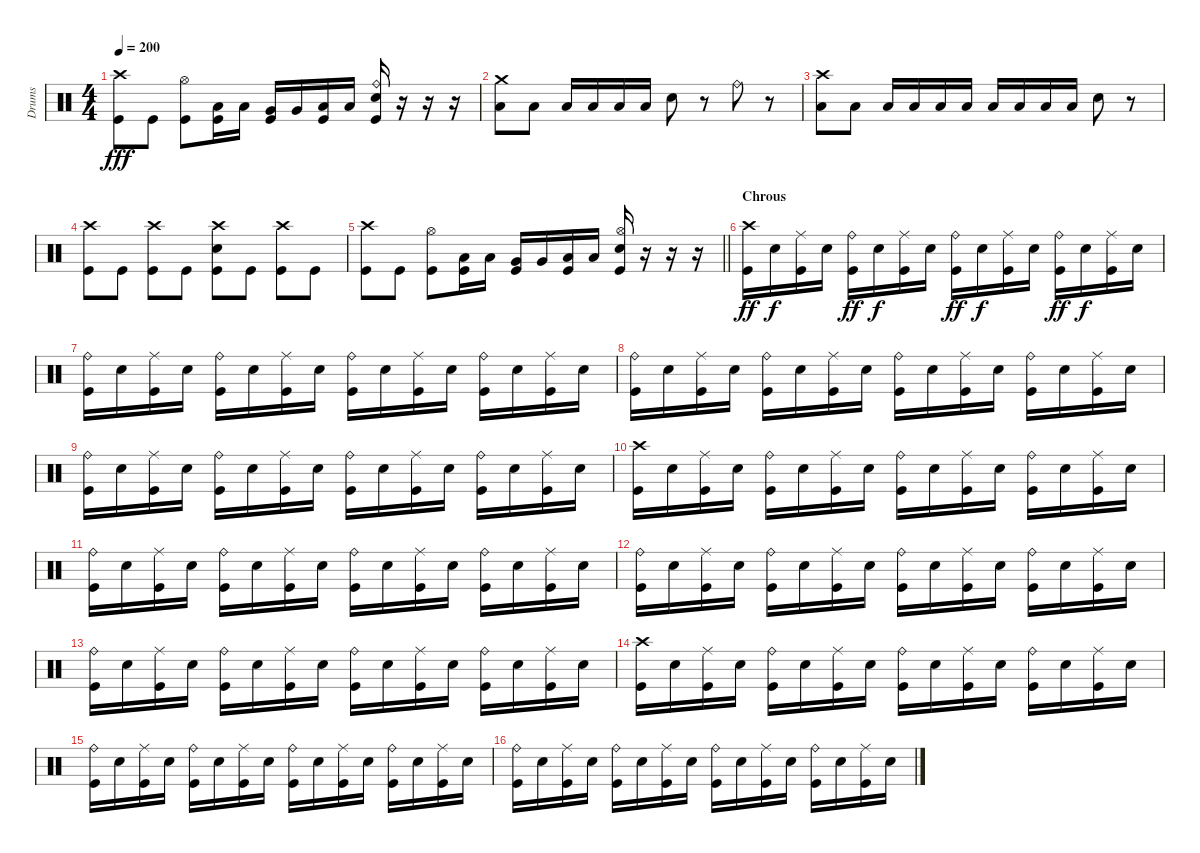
\track ("Drums" "Drums") {instrument percussion}
\staff {score}
\articulation defaults
\ts (4 4)
\tempo 200
\clef neutral
\ks c
("Crash high (hit)" "Kick (hit)").8{dy fff} "Kick (hit)".8 ("Hi-Hat (open)" "Kick (hit)").8 ("Low Tom (hit)" "Kick (hit)").16 "Low Tom (hit)".16 ("Very Low Tom (hit)" "Kick (hit)").16 "Very Low Tom (hit)".16 ("Low Tom (hit)" "Kick (hit)").16 "Low Tom (hit)".16 ("Ride (bell)" "Snare (hit) 2" "Kick (hit)").16 r.16 r.16 r.16 |
("Crash medium (hit)" "Low Floor Tom (hit)").8 "Low Floor Tom (hit)".8 "Low Tom (hit)".16 "Low Tom (hit)".16 "Low Floor Tom (hit)".16 "Low Floor Tom (hit)".16 "Snare (hit) 2".8 r.8 "Ride (bell)".8 r.8 |
("Crash high (hit)" "Low Floor Tom (hit)").8 "Low Floor Tom (hit)".8 "Low Tom (hit)".16 "Low Tom (hit)".16 "Low Floor Tom (hit)".16 "Low Floor Tom (hit)".16 "Low Tom (hit)".16 "Low Tom (hit)".16 "Low Floor Tom (hit)".16 "Low Floor Tom (hit)".16 "Snare (hit) 2".8 r.8 |
("Crash high (hit)" "Kick (hit)").8 "Kick (hit)".8 ("Crash high (hit)" "Kick (hit)").8 "Kick (hit)".8 ("Crash high (hit)" "Snare (hit) 2" "Kick (hit)").8 "Kick (hit)".8 ("Crash high (hit)" "Kick (hit)").8 "Kick (hit)".8 |
\barLineRight lightlight
("Crash high (hit)" "Kick (hit)").8 "Kick (hit)".8 ("Hi-Hat (open)" "Kick (hit)").8 ("Low Tom (hit)" "Kick (hit)").16 "Low Tom (hit)".16 ("Very Low Tom (hit)" "Kick (hit)").16 "Very Low Tom (hit)".16 ("Low Tom (hit)" "Kick (hit)").16 "Low Tom (hit)".16 ("Hi-Hat (open)" "Snare (hit) 2" "Kick (hit)").16 r.16 r.16 r.16 |
\section ("" "Chrous")
("Crash high (hit)" "Kick (hit)").16{dy ff} "Snare (hit) 2".16{dy f} ("Ride (middle)" "Kick (hit)").16 "Snare (hit) 2".16 ("Ride (bell)" "Kick (hit)").16{dy ff} "Snare (hit) 2".16{dy f} ("Ride (middle)" "Kick (hit)").16 "Snare (hit) 2".16 ("Ride (bell)" "Kick (hit)").16{dy ff} "Snare (hit) 2".16{dy f} ("Ride (middle)" "Kick (hit)").16 "Snare (hit) 2".16 ("Ride (bell)" "Kick (hit)").16{dy ff} "Snare (hit) 2".16{dy f} ("Ride (middle)" "Kick (hit)").16 "Snare (hit) 2".16 |
("Ride (bell)" "Kick (hit)").16 "Snare (hit) 2".16 ("Ride (middle)" "Kick (hit)").16 "Snare (hit) 2".16 ("Ride (bell)" "Kick (hit)").16 "Snare (hit) 2".16 ("Ride (middle)" "Kick (hit)").16 "Snare (hit) 2".16 ("Ride (bell)" "Kick (hit)").16 "Snare (hit) 2".16 ("Ride (middle)" "Kick (hit)").16 "Snare (hit) 2".16 ("Ride (bell)" "Kick (hit)").16 "Snare (hit) 2".16 ("Ride (middle)" "Kick (hit)").16 "Snare (hit) 2".16 |
("Ride (bell)" "Kick (hit)").16 "Snare (hit) 2".16 ("Ride (middle)" "Kick (hit)").16 "Snare (hit) 2".16 ("Ride (bell)" "Kick (hit)").16 "Snare (hit) 2".16 ("Ride (middle)" "Kick (hit)").16 "Snare (hit) 2".16 ("Ride (bell)" "Kick (hit)").16 "Snare (hit) 2".16 ("Ride (middle)" "Kick (hit)").16 "Snare (hit) 2".16 ("Ride (bell)" "Kick (hit)").16 "Snare (hit) 2".16 ("Ride (middle)" "Kick (hit)").16 "Snare (hit) 2".16 |
("Ride (bell)" "Kick (hit)").16 "Snare (hit) 2".16 ("Ride (middle)" "Kick (hit)").16 "Snare (hit) 2".16 ("Ride (bell)" "Kick (hit)").16 "Snare (hit) 2".16 ("Ride (middle)" "Kick (hit)").16 "Snare (hit) 2".16 ("Ride (bell)" "Kick (hit)").16 "Snare (hit) 2".16 ("Ride (middle)" "Kick (hit)").16 "Snare (hit) 2".16 ("Ride (bell)" "Kick (hit)").16 "Snare (hit) 2".16 ("Ride (middle)" "Kick (hit)").16 "Snare (hit) 2".16 |
("Crash high (hit)" "Kick (hit)").16 "Snare (hit) 2".16 ("Ride (middle)" "Kick (hit)").16 "Snare (hit) 2".16 ("Ride (bell)" "Kick (hit)").16 "Snare (hit) 2".16 ("Ride (middle)" "Kick (hit)").16 "Snare (hit) 2".16 ("Ride (bell)" "Kick (hit)").16 "Snare (hit) 2".16 ("Ride (middle)" "Kick (hit)").16 "Snare (hit) 2".16 ("Ride (bell)" "Kick (hit)").16 "Snare (hit) 2".16 ("Ride (middle)" "Kick (hit)").16 "Snare (hit) 2".16 |
("Ride (bell)" "Kick (hit)").16 "Snare (hit) 2".16 ("Ride (middle)" "Kick (hit)").16 "Snare (hit) 2".16 ("Ride (bell)" "Kick (hit)").16 "Snare (hit) 2".16 ("Ride (middle)" "Kick (hit)").16 "Snare (hit) 2".16 ("Ride (bell)" "Kick (hit)").16 "Snare (hit) 2".16 ("Ride (middle)" "Kick (hit)").16 "Snare (hit) 2".16 ("Ride (bell)" "Kick (hit)").16 "Snare (hit) 2".16 ("Ride (middle)" "Kick (hit)").16 "Snare (hit) 2".16 |
("Ride (bell)" "Kick (hit)").16 "Snare (hit) 2".16 ("Ride (middle)" "Kick (hit)").16 "Snare (hit) 2".16 ("Ride (bell)" "Kick (hit)").16 "Snare (hit) 2".16 ("Ride (middle)" "Kick (hit)").16 "Snare (hit) 2".16 ("Ride (bell)" "Kick (hit)").16 "Snare (hit) 2".16 ("Ride (middle)" "Kick (hit)").16 "Snare (hit) 2".16 ("Ride (bell)" "Kick (hit)").16 "Snare (hit) 2".16 ("Ride (middle)" "Kick (hit)").16 "Snare (hit) 2".16 |
("Ride (bell)" "Kick (hit)").16 "Snare (hit) 2".16 ("Ride (middle)" "Kick (hit)").16 "Snare (hit) 2".16 ("Ride (bell)" "Kick (hit)").16 "Snare (hit) 2".16 ("Ride (middle)" "Kick (hit)").16 "Snare (hit) 2".16 ("Ride (bell)" "Kick (hit)").16 "Snare (hit) 2".16 ("Ride (middle)" "Kick (hit)").16 "Snare (hit) 2".16 ("Ride (bell)" "Kick (hit)").16 "Snare (hit) 2".16 ("Ride (middle)" "Kick (hit)").16 "Snare (hit) 2".16 |
("Crash high (hit)" "Kick (hit)").16 "Snare (hit) 2".16 ("Ride (middle)" "Kick (hit)").16 "Snare (hit) 2".16 ("Ride (bell)" "Kick (hit)").16 "Snare (hit) 2".16 ("Ride (middle)" "Kick (hit)").16 "Snare (hit) 2".16 ("Ride (bell)" "Kick (hit)").16 "Snare (hit) 2".16 ("Ride (middle)" "Kick (hit)").16 "Snare (hit) 2".16 ("Ride (bell)" "Kick (hit)").16 "Snare (hit) 2".16 ("Ride (middle)" "Kick (hit)").16 "Snare (hit) 2".16 |
("Ride (bell)" "Kick (hit)").16 "Snare (hit) 2".16 ("Ride (middle)" "Kick (hit)").16 "Snare (hit) 2".16 ("Ride (bell)" "Kick (hit)").16 "Snare (hit) 2".16 ("Ride (middle)" "Kick (hit)").16 "Snare (hit) 2".16 ("Ride (bell)" "Kick (hit)").16 "Snare (hit) 2".16 ("Ride (middle)" "Kick (hit)").16 "Snare (hit) 2".16 ("Ride (bell)" "Kick (hit)").16 "Snare (hit) 2".16 ("Ride (middle)" "Kick (hit)").16 "Snare (hit) 2".16 |
("Ride (bell)" "Kick (hit)").16 "Snare (hit) 2".16 ("Ride (middle)" "Kick (hit)").16 "Snare (hit) 2".16 ("Ride (bell)" "Kick (hit)").16 "Snare (hit) 2".16 ("Ride (middle)" "Kick (hit)").16 "Snare (hit) 2".16 ("Ride (bell)" "Kick (hit)").16 "Snare (hit) 2".16 ("Ride (middle)" "Kick (hit)").16 "Snare (hit) 2".16 ("Ride (bell)" "Kick (hit)").16 "Snare (hit) 2".16 ("Ride (middle)" "Kick (hit)").16 "Snare (hit) 2".16
